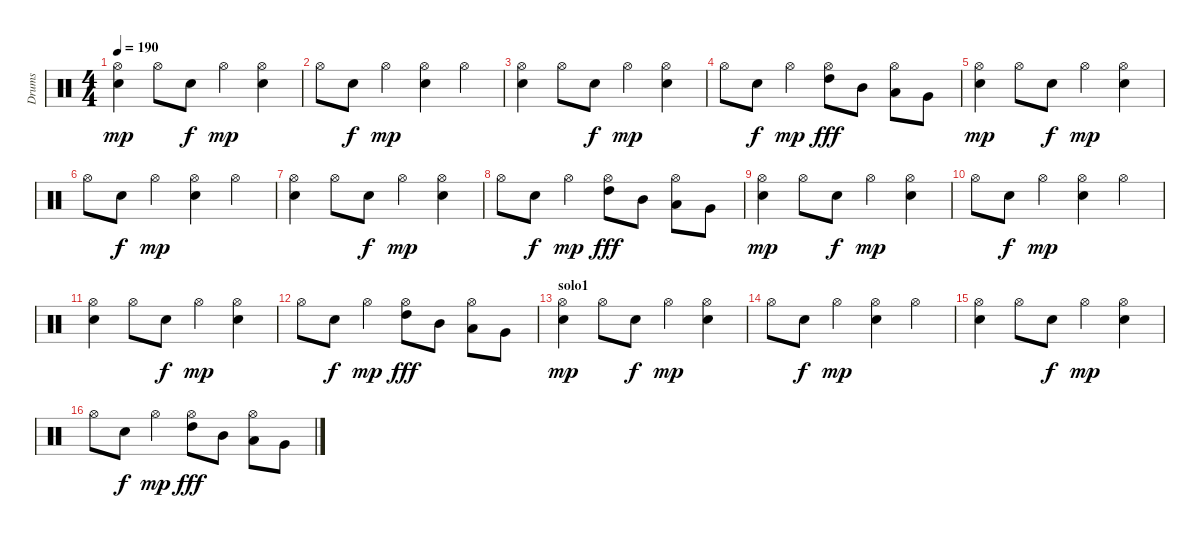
\track ("Drums" "Drums") {instrument percussion}
\staff {score}
\articulation defaults
\ts (4 4)
\tempo 190
\clef neutral
\ks c
("Hi-Hat (open)" "Snare (hit) 2").4{dy mp} "Hi-Hat (open)".8 "Snare (hit) 2".8{dy f} "Hi-Hat (open)".4{dy mp} ("Hi-Hat (open)" "Snare (hit) 2").4 |
"Hi-Hat (open)".8 "Snare (hit) 2".8{dy f} "Hi-Hat (open)".4{dy mp} ("Hi-Hat (open)" "Snare (hit) 2").4 "Hi-Hat (open)".4 |
("Hi-Hat (open)" "Snare (hit) 2").4 "Hi-Hat (open)".8 "Snare (hit) 2".8{dy f} "Hi-Hat (open)".4{dy mp} ("Hi-Hat (open)" "Snare (hit) 2").4 |
"Hi-Hat (open)".8 "Snare (hit) 2".8{dy f} "Hi-Hat (open)".4{dy mp} ("Hi-Hat (open)" "High Tom (hit)").8{dy fff} "Mid Tom (hit)".8 ("Hi-Hat (open)" "Low Tom (hit)").8 "Very Low Tom (hit)".8 |
("Hi-Hat (open)" "Snare (hit) 2").4{dy mp} "Hi-Hat (open)".8 "Snare (hit) 2".8{dy f} "Hi-Hat (open)".4{dy mp} ("Hi-Hat (open)" "Snare (hit) 2").4 |
"Hi-Hat (open)".8 "Snare (hit) 2".8{dy f} "Hi-Hat (open)".4{dy mp} ("Hi-Hat (open)" "Snare (hit) 2").4 "Hi-Hat (open)".4 |
("Hi-Hat (open)" "Snare (hit) 2").4 "Hi-Hat (open)".8 "Snare (hit) 2".8{dy f} "Hi-Hat (open)".4{dy mp} ("Hi-Hat (open)" "Snare (hit) 2").4 |
"Hi-Hat (open)".8 "Snare (hit) 2".8{dy f} "Hi-Hat (open)".4{dy mp} ("Hi-Hat (open)" "High Tom (hit)").8{dy fff} "Mid Tom (hit)".8 ("Hi-Hat (open)" "Low Tom (hit)").8 "Very Low Tom (hit)".8 |
("Hi-Hat (open)" "Snare (hit) 2").4{dy mp} "Hi-Hat (open)".8 "Snare (hit) 2".8{dy f} "Hi-Hat (open)".4{dy mp} ("Hi-Hat (open)" "Snare (hit) 2").4 |
"Hi-Hat (open)".8 "Snare (hit) 2".8{dy f} "Hi-Hat (open)".4{dy mp} ("Hi-Hat (open)" "Snare (hit) 2").4 "Hi-Hat (open)".4 |
("Hi-Hat (open)" "Snare (hit) 2").4 "Hi-Hat (open)".8 "Snare (hit) 2".8{dy f} "Hi-Hat (open)".4{dy mp} ("Hi-Hat (open)" "Snare (hit) 2").4 |
"Hi-Hat (open)".8 "Snare (hit) 2".8{dy f} "Hi-Hat (open)".4{dy mp} ("Hi-Hat (open)" "High Tom (hit)").8{dy fff} "Mid Tom (hit)".8 ("Hi-Hat (open)" "Low Tom (hit)").8 "Very Low Tom (hit)".8 |
\section ("" "solo1")
("Hi-Hat (open)" "Snare (hit) 2").4{dy mp} "Hi-Hat (open)".8 "Snare (hit) 2".8{dy f} "Hi-Hat (open)".4{dy mp} ("Hi-Hat (open)" "Snare (hit) 2").4 |
"Hi-Hat (open)".8 "Snare (hit) 2".8{dy f} "Hi-Hat (open)".4{dy mp} ("Hi-Hat (open)" "Snare (hit) 2").4 "Hi-Hat (open)".4 |
("Hi-Hat (open)" "Snare (hit) 2").4 "Hi-Hat (open)".8 "Snare (hit) 2".8{dy f} "Hi-Hat (open)".4{dy mp} ("Hi-Hat (open)" "Snare (hit) 2").4 |
"Hi-Hat (open)".8 "Snare (hit) 2".8{dy f} "Hi-Hat (open)".4{dy mp} ("Hi-Hat (open)" "High Tom (hit)").8{dy fff} "Mid Tom (hit)".8 ("Hi-Hat (open)" "Low Tom (hit)").8 "Very Low Tom (hit)".8
